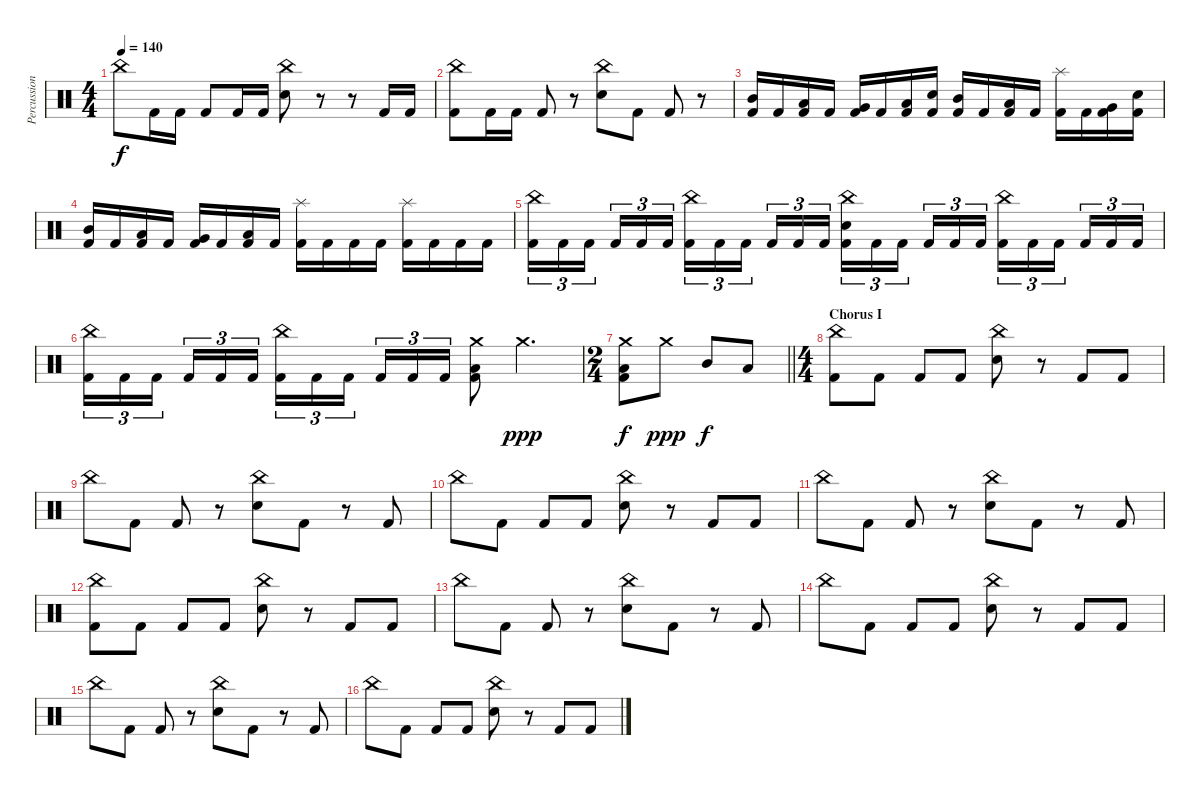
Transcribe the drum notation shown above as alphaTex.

\track ("Percussion" "Percussion") {instrument percussion}
\staff {score}
\articulation defaults
\ts (4 4)
\tempo 140
\clef neutral
\ks c "China (hit)".8{dy f} "Kick (hit) 2".16 "Kick (hit) 2".16 "Kick (hit) 2".8 "Kick (hit) 2".16 "Kick (hit) 2".16
("China (hit)" "Snare (hit) 2").8 r.8 r.8 "Kick (hit) 2".16 "Kick (hit) 2".16 |
("China (hit)" "Kick (hit) 2").8 "Kick (hit) 2".16 "Kick (hit) 2".16 "Kick (hit) 2".8 r.8 ("China (hit)" "Snare (hit) 2").8 "Kick (hit) 2".8 "Kick (hit) 2".8 r.8 |
("Mid Tom (hit)" "Kick (hit) 2").16 "Kick (hit) 2".16 ("Low Tom (hit)" "Kick (hit) 2").16 "Kick (hit) 2".16 ("Very Low Tom (hit)" "Kick (hit) 2").16 "Kick (hit) 2".16 ("Low Floor Tom (hit)" "Kick (hit) 2").16 ("Snare (hit) 2" "Kick (hit) 2").16 ("Mid Tom (hit)" "Kick (hit) 2").16 "Kick (hit) 2".16 ("Low Tom (hit)" "Kick (hit) 2").16 "Kick (hit) 2".16 ("Splash (hit)" "Kick (hit) 2").16 "Kick (hit) 2".16 ("Very Low Tom (hit)" "Kick (hit) 2").16 ("Snare (hit) 2" "Kick (hit) 2").16 |
("Mid Tom (hit)" "Kick (hit) 2").16 "Kick (hit) 2".16 ("Low Tom (hit)" "Kick (hit) 2").16 "Kick (hit) 2".16 ("Very Low Tom (hit)" "Kick (hit) 2").16 "Kick (hit) 2".16 ("Low Floor Tom (hit)" "Kick (hit) 2").16 "Kick (hit) 2".16 ("Splash (hit)" "Kick (hit) 2").16 "Kick (hit) 2".16 "Kick (hit) 2".16 "Kick (hit) 2".16 ("Splash (hit)" "Kick (hit) 2").16 "Kick (hit) 2".16 "Kick (hit) 2".16 "Kick (hit) 2".16 |
("China (hit)" "Kick (hit) 2").16{tu (3 2)} "Kick (hit) 2".16{tu (3 2)} "Kick (hit) 2".16{tu (3 2) beam splitsecondary} "Kick (hit) 2".16{tu (3 2)} "Kick (hit) 2".16{tu (3 2)} "Kick (hit) 2".16{tu (3 2)} ("China (hit)" "Kick (hit) 2").16{tu (3 2)} "Kick (hit) 2".16{tu (3 2)} "Kick (hit) 2".16{tu (3 2) beam splitsecondary} "Kick (hit) 2".16{tu (3 2)} "Kick (hit) 2".16{tu (3 2)} "Kick (hit) 2".16{tu (3 2)} ("China (hit)" "Snare (hit) 2" "Kick (hit) 2").16{tu (3 2)} "Kick (hit) 2".16{tu (3 2)} "Kick (hit) 2".16{tu (3 2) beam splitsecondary} "Kick (hit) 2".16{tu (3 2)} "Kick (hit) 2".16{tu (3 2)} "Kick (hit) 2".16{tu (3 2)} ("China (hit)" "Kick (hit) 2").16{tu (3 2)} "Kick (hit) 2".16{tu (3 2)} "Kick (hit) 2".16{tu (3 2) beam splitsecondary} "Kick (hit) 2".16{tu (3 2)} "Kick (hit) 2".16{tu (3 2)} "Kick (hit) 2".16{tu (3 2)} |
("China (hit)" "Kick (hit) 2").16{tu (3 2)} "Kick (hit) 2".16{tu (3 2)} "Kick (hit) 2".16{tu (3 2) beam splitsecondary} "Kick (hit) 2".16{tu (3 2)} "Kick (hit) 2".16{tu (3 2)} "Kick (hit) 2".16{tu (3 2)} ("China (hit)" "Kick (hit) 2").16{tu (3 2)} "Kick (hit) 2".16{tu (3 2)} "Kick (hit) 2".16{tu (3 2) beam splitsecondary} "Kick (hit) 2".16{tu (3 2)} "Kick (hit) 2".16{tu (3 2)} "Kick (hit) 2".16{tu (3 2)} ("Crash medium (hit)" "Low Floor Tom (hit)" "Kick (hit) 2").8 "Crash medium (hit)".4{d dy ppp} |
\ts (2 4)
\barLineRight lightlight
("Crash medium (hit)" "Low Floor Tom (hit)" "Kick (hit) 2").8{dy f} "Crash medium (hit)".8{dy ppp} "Mid Tom (hit)".8{dy f} "Low Tom (hit)".8 |
\ts (4 4)
\section ("" "Chorus I")
("China (hit)" "Kick (hit) 2").8 "Kick (hit) 2".8 "Kick (hit) 2".8 "Kick (hit) 2".8 ("China (hit)" "Snare (hit) 2").8 r.8 "Kick (hit) 2".8 "Kick (hit) 2".8 |
"China (hit)".8 "Kick (hit) 2".8 "Kick (hit) 2".8 r.8 ("China (hit)" "Snare (hit) 2").8 "Kick (hit) 2".8 r.8 "Kick (hit) 2".8 |
"China (hit)".8 "Kick (hit) 2".8 "Kick (hit) 2".8 "Kick (hit) 2".8 ("China (hit)" "Snare (hit) 2").8 r.8 "Kick (hit) 2".8 "Kick (hit) 2".8 |
"China (hit)".8 "Kick (hit) 2".8 "Kick (hit) 2".8 r.8 ("China (hit)" "Snare (hit) 2").8 "Kick (hit) 2".8 r.8 "Kick (hit) 2".8 |
("China (hit)" "Kick (hit) 2").8 "Kick (hit) 2".8 "Kick (hit) 2".8 "Kick (hit) 2".8 ("China (hit)" "Snare (hit) 2").8 r.8 "Kick (hit) 2".8 "Kick (hit) 2".8 |
"China (hit)".8 "Kick (hit) 2".8 "Kick (hit) 2".8 r.8 ("China (hit)" "Snare (hit) 2").8 "Kick (hit) 2".8 r.8 "Kick (hit) 2".8 |
"China (hit)".8 "Kick (hit) 2".8 "Kick (hit) 2".8 "Kick (hit) 2".8 ("China (hit)" "Snare (hit) 2").8 r.8 "Kick (hit) 2".8 "Kick (hit) 2".8 |
"China (hit)".8 "Kick (hit) 2".8 "Kick (hit) 2".8 r.8 ("China (hit)" "Snare (hit) 2").8 "Kick (hit) 2".8 r.8 "Kick (hit) 2".8 |
"China (hit)".8 "Kick (hit) 2".8 "Kick (hit) 2".8 "Kick (hit) 2".8 ("China (hit)" "Snare (hit) 2").8 r.8 "Kick (hit) 2".8 "Kick (hit) 2".8
